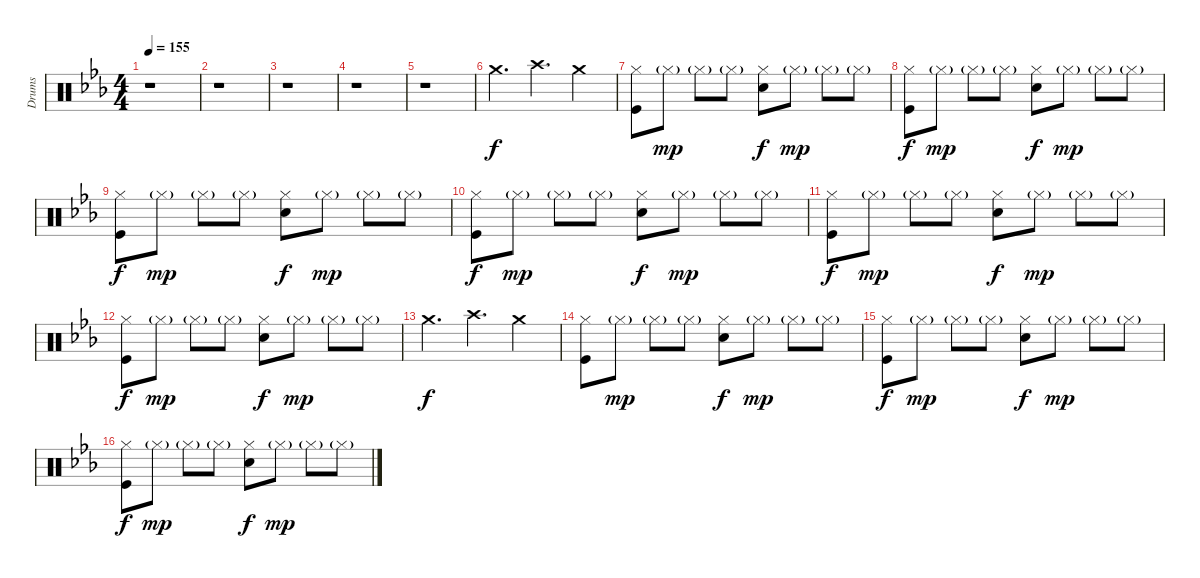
\track ("Drums" "Drums") {instrument percussion}
\staff {score}
\articulation defaults
\ts (4 4)
\tempo 155
\clef neutral
\ks eb
r.1{dy f} |
r.1 |
r.1 |
r.1 |
r.1 |
"Crash medium (hit)".4{d} "Crash high (hit)".4{d} "Crash medium (hit)".4 |
("Hi-Hat (closed)" "Kick (hit)").8 "Hi-Hat (closed)"{g}.8{dy mp} "Hi-Hat (closed)"{g}.8 "Hi-Hat (closed)"{g}.8 ("Hi-Hat (closed)" "Snare (hit) 2").8{dy f} "Hi-Hat (closed)"{g}.8{dy mp} "Hi-Hat (closed)"{g}.8 "Hi-Hat (closed)"{g}.8 |
("Hi-Hat (closed)" "Kick (hit)").8{dy f} "Hi-Hat (closed)"{g}.8{dy mp} "Hi-Hat (closed)"{g}.8 "Hi-Hat (closed)"{g}.8 ("Hi-Hat (closed)" "Snare (hit) 2").8{dy f} "Hi-Hat (closed)"{g}.8{dy mp} "Hi-Hat (closed)"{g}.8 "Hi-Hat (closed)"{g}.8 |
("Hi-Hat (closed)" "Kick (hit)").8{dy f} "Hi-Hat (closed)"{g}.8{dy mp} "Hi-Hat (closed)"{g}.8 "Hi-Hat (closed)"{g}.8 ("Hi-Hat (closed)" "Snare (hit) 2").8{dy f} "Hi-Hat (closed)"{g}.8{dy mp} "Hi-Hat (closed)"{g}.8 "Hi-Hat (closed)"{g}.8 |
("Hi-Hat (closed)" "Kick (hit)").8{dy f} "Hi-Hat (closed)"{g}.8{dy mp} "Hi-Hat (closed)"{g}.8 "Hi-Hat (closed)"{g}.8 ("Hi-Hat (closed)" "Snare (hit) 2").8{dy f} "Hi-Hat (closed)"{g}.8{dy mp} "Hi-Hat (closed)"{g}.8 "Hi-Hat (closed)"{g}.8 |
("Hi-Hat (closed)" "Kick (hit)").8{dy f} "Hi-Hat (closed)"{g}.8{dy mp} "Hi-Hat (closed)"{g}.8 "Hi-Hat (closed)"{g}.8 ("Hi-Hat (closed)" "Snare (hit) 2").8{dy f} "Hi-Hat (closed)"{g}.8{dy mp} "Hi-Hat (closed)"{g}.8 "Hi-Hat (closed)"{g}.8 |
("Hi-Hat (closed)" "Kick (hit)").8{dy f} "Hi-Hat (closed)"{g}.8{dy mp} "Hi-Hat (closed)"{g}.8 "Hi-Hat (closed)"{g}.8 ("Hi-Hat (closed)" "Snare (hit) 2").8{dy f} "Hi-Hat (closed)"{g}.8{dy mp} "Hi-Hat (closed)"{g}.8 "Hi-Hat (closed)"{g}.8 |
"Crash medium (hit)".4{d dy f} "Crash high (hit)".4{d} "Crash medium (hit)".4 |
("Hi-Hat (closed)" "Kick (hit)").8 "Hi-Hat (closed)"{g}.8{dy mp} "Hi-Hat (closed)"{g}.8 "Hi-Hat (closed)"{g}.8 ("Hi-Hat (closed)" "Snare (hit) 2").8{dy f} "Hi-Hat (closed)"{g}.8{dy mp} "Hi-Hat (closed)"{g}.8 "Hi-Hat (closed)"{g}.8 |
("Hi-Hat (closed)" "Kick (hit)").8{dy f} "Hi-Hat (closed)"{g}.8{dy mp} "Hi-Hat (closed)"{g}.8 "Hi-Hat (closed)"{g}.8 ("Hi-Hat (closed)" "Snare (hit) 2").8{dy f} "Hi-Hat (closed)"{g}.8{dy mp} "Hi-Hat (closed)"{g}.8 "Hi-Hat (closed)"{g}.8 |
("Hi-Hat (closed)" "Kick (hit)").8{dy f} "Hi-Hat (closed)"{g}.8{dy mp} "Hi-Hat (closed)"{g}.8 "Hi-Hat (closed)"{g}.8 ("Hi-Hat (closed)" "Snare (hit) 2").8{dy f} "Hi-Hat (closed)"{g}.8{dy mp} "Hi-Hat (closed)"{g}.8 "Hi-Hat (closed)"{g}.8
